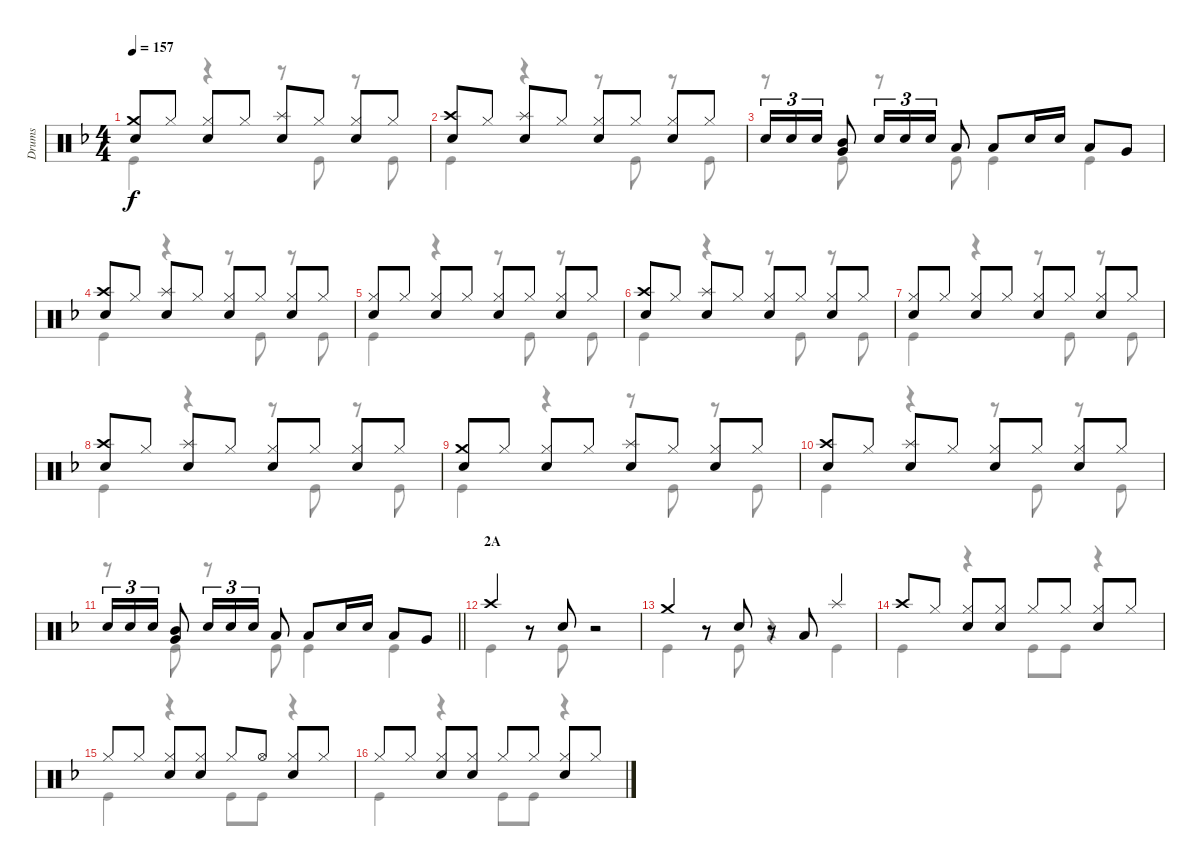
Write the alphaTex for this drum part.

\track ("Drums" "Drums") {instrument percussion}
\staff {score}
\articulation defaults
\voice
\ts (4 4)
\tempo 157
\clef neutral
\ks f
("Crash medium (hit)" "Snare (hit) 2").8{dy f} "Hi-Hat (closed)".8 ("Hi-Hat (closed)" "Snare (hit) 2").8 "Hi-Hat (closed)".8 ("Splash (hit)" "Snare (hit) 2").8 "Hi-Hat (closed)".8 ("Hi-Hat (closed)" "Snare (hit) 2").8 "Hi-Hat (closed)".8 |
("Crash high (hit)" "Snare (hit) 2").8 "Hi-Hat (closed)".8 ("Splash (hit)" "Snare (hit) 2").8 "Hi-Hat (closed)".8 ("Hi-Hat (closed)" "Snare (hit) 2").8 "Hi-Hat (closed)".8 ("Hi-Hat (closed)" "Snare (hit) 2").8 "Hi-Hat (closed)".8 |
"Snare (hit) 2".16{tu (3 2)} "Snare (hit) 2".16{tu (3 2)} "Snare (hit) 2".16{tu (3 2)} ("Very Low Tom (hit)" "Mid Tom (hit)").8 "Snare (hit) 2".16{tu (3 2)} "Snare (hit) 2".16{tu (3 2)} "Snare (hit) 2".16{tu (3 2)} "Low Tom (hit)".8 "Low Tom (hit)".8 "Snare (hit) 2".16 "Snare (hit) 2".16 "Low Tom (hit)".8 "Very Low Tom (hit)".8 |
("Crash high (hit)" "Snare (hit) 2").8 "Hi-Hat (closed)".8 ("Splash (hit)" "Snare (hit) 2").8 "Hi-Hat (closed)".8 ("Hi-Hat (closed)" "Snare (hit) 2").8 "Hi-Hat (closed)".8 ("Hi-Hat (closed)" "Snare (hit) 2").8 "Hi-Hat (closed)".8 |
("Hi-Hat (closed)" "Snare (hit) 2").8 "Hi-Hat (closed)".8 ("Hi-Hat (closed)" "Snare (hit) 2").8 "Hi-Hat (closed)".8 ("Hi-Hat (closed)" "Snare (hit) 2").8 "Hi-Hat (closed)".8 ("Hi-Hat (closed)" "Snare (hit) 2").8 "Hi-Hat (closed)".8 |
("Crash high (hit)" "Snare (hit) 2").8 "Hi-Hat (closed)".8 ("Splash (hit)" "Snare (hit) 2").8 "Hi-Hat (closed)".8 ("Hi-Hat (closed)" "Snare (hit) 2").8 "Hi-Hat (closed)".8 ("Hi-Hat (closed)" "Snare (hit) 2").8 "Hi-Hat (closed)".8 |
("Hi-Hat (closed)" "Snare (hit) 2").8 "Hi-Hat (closed)".8 ("Hi-Hat (closed)" "Snare (hit) 2").8 "Hi-Hat (closed)".8 ("Hi-Hat (closed)" "Snare (hit) 2").8 "Hi-Hat (closed)".8 ("Hi-Hat (closed)" "Snare (hit) 2").8 "Hi-Hat (closed)".8 |
("Crash high (hit)" "Snare (hit) 2").8 "Hi-Hat (closed)".8 ("Splash (hit)" "Snare (hit) 2").8 "Hi-Hat (closed)".8 ("Hi-Hat (closed)" "Snare (hit) 2").8 "Hi-Hat (closed)".8 ("Hi-Hat (closed)" "Snare (hit) 2").8 "Hi-Hat (closed)".8 |
("Crash medium (hit)" "Snare (hit) 2").8 "Hi-Hat (closed)".8 ("Hi-Hat (closed)" "Snare (hit) 2").8 "Hi-Hat (closed)".8 ("Splash (hit)" "Snare (hit) 2").8 "Hi-Hat (closed)".8 ("Hi-Hat (closed)" "Snare (hit) 2").8 "Hi-Hat (closed)".8 |
("Crash high (hit)" "Snare (hit) 2").8 "Hi-Hat (closed)".8 ("Splash (hit)" "Snare (hit) 2").8 "Hi-Hat (closed)".8 ("Hi-Hat (closed)" "Snare (hit) 2").8 "Hi-Hat (closed)".8 ("Hi-Hat (closed)" "Snare (hit) 2").8 "Hi-Hat (closed)".8 |
\barLineRight lightlight "Snare (hit) 2".16{tu (3 2)} "Snare (hit) 2".16{tu (3 2)} "Snare (hit) 2".16{tu (3 2)}
("Very Low Tom (hit)" "Mid Tom (hit)").8 "Snare (hit) 2".16{tu (3 2)} "Snare (hit) 2".16{tu (3 2)} "Snare (hit) 2".16{tu (3 2)} "Low Tom (hit)".8 "Low Tom (hit)".8 "Snare (hit) 2".16 "Snare (hit) 2".16 "Low Tom (hit)".8 "Very Low Tom (hit)".8 |
\section ("" "2A")
"Crash high (hit)".4 r.8 "Snare (hit) 2".8 r.2 |
"Crash medium (hit)".4 r.8 "Snare (hit) 2".8 r.8 "Low Tom (hit)".8 "Splash (hit)".4 |
"Crash high (hit)".8 "Hi-Hat (closed)".8 ("Hi-Hat (closed)" "Snare (hit) 2").8 ("Hi-Hat (closed)" "Snare (hit) 2").8 "Hi-Hat (closed)".8 "Hi-Hat (closed)".8 ("Hi-Hat (closed)" "Snare (hit) 2").8 "Hi-Hat (closed)".8 |
"Hi-Hat (closed)".8 "Hi-Hat (closed)".8 ("Hi-Hat (closed)" "Snare (hit) 2").8 ("Hi-Hat (closed)" "Snare (hit) 2").8 "Hi-Hat (closed)".8 "Hi-Hat (open)".8 ("Hi-Hat (closed)" "Snare (hit) 2").8 "Hi-Hat (closed)".8 |
"Hi-Hat (closed)".8 "Hi-Hat (closed)".8 ("Hi-Hat (closed)" "Snare (hit) 2").8 ("Hi-Hat (closed)" "Snare (hit) 2").8 "Hi-Hat (closed)".8 "Hi-Hat (closed)".8 ("Hi-Hat (closed)" "Snare (hit) 2").8 "Hi-Hat (closed)".8
\voice
\clef neutral
\ottava regular
\simile none
\ks f "Kick (hit)".4{dy f}
r.4 r.8 "Kick (hit)".8 r.8 "Kick (hit)".8 |
"Kick (hit)".4 r.4 r.8 "Kick (hit)".8 r.8 "Kick (hit)".8 |
r.8 "Kick (hit)".8 r.8 "Kick (hit)".8 "Kick (hit)".4 "Kick (hit)".4 |
"Kick (hit)".4 r.4 r.8 "Kick (hit)".8 r.8 "Kick (hit)".8 |
"Kick (hit)".4 r.4 r.8 "Kick (hit)".8 r.8 "Kick (hit)".8 |
"Kick (hit)".4 r.4 r.8 "Kick (hit)".8 r.8 "Kick (hit)".8 |
"Kick (hit)".4 r.4 r.8 "Kick (hit)".8 r.8 "Kick (hit)".8 |
"Kick (hit)".4 r.4 r.8 "Kick (hit)".8 r.8 "Kick (hit)".8 |
"Kick (hit)".4 r.4 r.8 "Kick (hit)".8 r.8 "Kick (hit)".8 |
"Kick (hit)".4 r.4 r.8 "Kick (hit)".8 r.8 "Kick (hit)".8 |
\barLineRight lightlight
r.8 "Kick (hit)".8 r.8 "Kick (hit)".8 "Kick (hit)".4 "Kick (hit)".4 |
"Kick (hit)".4 r.8 "Kick (hit)".8 r.2 |
"Kick (hit)".4 r.8 "Kick (hit)".8 r.4 "Kick (hit)".4 |
"Kick (hit)".4 r.4 "Kick (hit)".8 "Kick (hit)".8 r.4 |
"Kick (hit)".4 r.4 "Kick (hit)".8 "Kick (hit)".8 r.4 |
"Kick (hit)".4 r.4 "Kick (hit)".8 "Kick (hit)".8 r.4
